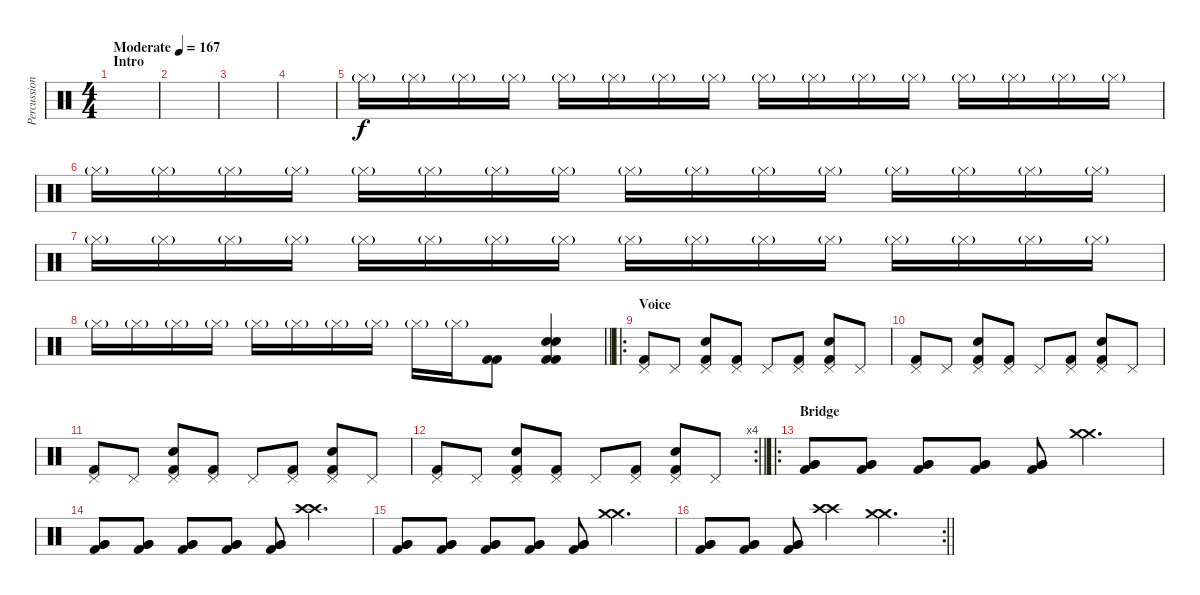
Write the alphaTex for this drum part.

\track ("Percussioni" "Percussion") {instrument percussion}
\staff {score}
\articulation defaults
\ts (4 4)
\section ("" "Intro")
\tempo (167 "Moderate")
\clef neutral
\ks c
|
|
|
|
"Hi-Hat (closed)"{g}.16 "Hi-Hat (closed)"{g}.16 "Hi-Hat (closed)"{g}.16 "Hi-Hat (closed)"{g}.16 "Hi-Hat (closed)"{g}.16 "Hi-Hat (closed)"{g}.16 "Hi-Hat (closed)"{g}.16 "Hi-Hat (closed)"{g}.16 "Hi-Hat (closed)"{g}.16 "Hi-Hat (closed)"{g}.16 "Hi-Hat (closed)"{g}.16 "Hi-Hat (closed)"{g}.16 "Hi-Hat (closed)"{g}.16 "Hi-Hat (closed)"{g}.16 "Hi-Hat (closed)"{g}.16 "Hi-Hat (closed)"{g}.16 |
"Hi-Hat (closed)"{g}.16 "Hi-Hat (closed)"{g}.16 "Hi-Hat (closed)"{g}.16 "Hi-Hat (closed)"{g}.16 "Hi-Hat (closed)"{g}.16 "Hi-Hat (closed)"{g}.16 "Hi-Hat (closed)"{g}.16 "Hi-Hat (closed)"{g}.16 "Hi-Hat (closed)"{g}.16 "Hi-Hat (closed)"{g}.16 "Hi-Hat (closed)"{g}.16 "Hi-Hat (closed)"{g}.16 "Hi-Hat (closed)"{g}.16 "Hi-Hat (closed)"{g}.16 "Hi-Hat (closed)"{g}.16 "Hi-Hat (closed)"{g}.16 |
"Hi-Hat (closed)"{g}.16 "Hi-Hat (closed)"{g}.16 "Hi-Hat (closed)"{g}.16 "Hi-Hat (closed)"{g}.16 "Hi-Hat (closed)"{g}.16 "Hi-Hat (closed)"{g}.16 "Hi-Hat (closed)"{g}.16 "Hi-Hat (closed)"{g}.16 "Hi-Hat (closed)"{g}.16 "Hi-Hat (closed)"{g}.16 "Hi-Hat (closed)"{g}.16 "Hi-Hat (closed)"{g}.16 "Hi-Hat (closed)"{g}.16 "Hi-Hat (closed)"{g}.16 "Hi-Hat (closed)"{g}.16 "Hi-Hat (closed)"{g}.16 |
\barLineRight lightlight "Hi-Hat (closed)"{g}.16 "Hi-Hat (closed)"{g}.16 "Hi-Hat (closed)"{g}.16 "Hi-Hat (closed)"{g}.16 "Hi-Hat (closed)"{g}.16 "Hi-Hat (closed)"{g}.16 "Hi-Hat (closed)"{g}.16 "Hi-Hat (closed)"{g}.16 "Hi-Hat (closed)"{g}.16 "Hi-Hat (closed)"{g}.16
("Kick (hit) 2" "Kick (hit) 2").8 ("Snare (hit) 2" "Snare (hit) 2" "Kick (hit) 2" "Kick (hit) 2").4 |
\ro
\section ("" "Voice")
("Pedal Hi-Hat (hit)" "Kick (hit) 2").8 "Pedal Hi-Hat (hit)".8 ("Pedal Hi-Hat (hit)" "Electric Snare (hit)" "Kick (hit) 2").8 ("Pedal Hi-Hat (hit)" "Kick (hit) 2").8 "Pedal Hi-Hat (hit)".8 ("Pedal Hi-Hat (hit)" "Kick (hit) 2").8 ("Pedal Hi-Hat (hit)" "Electric Snare (hit)" "Kick (hit) 2").8 "Pedal Hi-Hat (hit)".8 |
("Pedal Hi-Hat (hit)" "Kick (hit) 2").8 "Pedal Hi-Hat (hit)".8 ("Pedal Hi-Hat (hit)" "Electric Snare (hit)" "Kick (hit) 2").8 ("Pedal Hi-Hat (hit)" "Kick (hit) 2").8 "Pedal Hi-Hat (hit)".8 ("Pedal Hi-Hat (hit)" "Kick (hit) 2").8 ("Pedal Hi-Hat (hit)" "Electric Snare (hit)" "Kick (hit) 2").8 "Pedal Hi-Hat (hit)".8 |
("Pedal Hi-Hat (hit)" "Kick (hit) 2").8 "Pedal Hi-Hat (hit)".8 ("Pedal Hi-Hat (hit)" "Electric Snare (hit)" "Kick (hit) 2").8 ("Pedal Hi-Hat (hit)" "Kick (hit) 2").8 "Pedal Hi-Hat (hit)".8 ("Pedal Hi-Hat (hit)" "Kick (hit) 2").8 ("Pedal Hi-Hat (hit)" "Electric Snare (hit)" "Kick (hit) 2").8 "Pedal Hi-Hat (hit)".8 |
\rc 4
\barLineRight lightlight
("Pedal Hi-Hat (hit)" "Kick (hit) 2").8 "Pedal Hi-Hat (hit)".8 ("Pedal Hi-Hat (hit)" "Electric Snare (hit)" "Kick (hit) 2").8 ("Pedal Hi-Hat (hit)" "Kick (hit) 2").8 "Pedal Hi-Hat (hit)".8 ("Pedal Hi-Hat (hit)" "Kick (hit) 2").8 ("Pedal Hi-Hat (hit)" "Electric Snare (hit)" "Kick (hit) 2").8 "Pedal Hi-Hat (hit)".8 |
\ro
\section ("" "Bridge")
("Very Low Tom (hit)" "Very Low Tom (hit)" "Kick (hit) 2").8 ("Very Low Tom (hit)" "Very Low Tom (hit)" "Kick (hit) 2").8 ("Very Low Tom (hit)" "Very Low Tom (hit)" "Kick (hit) 2").8 ("Very Low Tom (hit)" "Very Low Tom (hit)" "Kick (hit) 2").8 ("Very Low Tom (hit)" "Very Low Tom (hit)" "Kick (hit) 2").8 ("Crash medium (hit)" "Crash medium (hit)").4{d} |
("Very Low Tom (hit)" "Very Low Tom (hit)" "Kick (hit) 2").8 ("Very Low Tom (hit)" "Very Low Tom (hit)" "Kick (hit) 2").8 ("Very Low Tom (hit)" "Very Low Tom (hit)" "Kick (hit) 2").8 ("Very Low Tom (hit)" "Very Low Tom (hit)" "Kick (hit) 2").8 ("Very Low Tom (hit)" "Very Low Tom (hit)" "Kick (hit) 2").8 ("Crash high (hit)" "Crash high (hit)").4{d} |
("Very Low Tom (hit)" "Very Low Tom (hit)" "Kick (hit) 2").8 ("Very Low Tom (hit)" "Very Low Tom (hit)" "Kick (hit) 2").8 ("Very Low Tom (hit)" "Very Low Tom (hit)" "Kick (hit) 2").8 ("Very Low Tom (hit)" "Very Low Tom (hit)" "Kick (hit) 2").8 ("Very Low Tom (hit)" "Very Low Tom (hit)" "Kick (hit) 2").8 ("Crash medium (hit)" "Crash medium (hit)").4{d} |
\rc 2
\barLineRight lightlight
("Very Low Tom (hit)" "Very Low Tom (hit)" "Kick (hit) 2").8 ("Very Low Tom (hit)" "Very Low Tom (hit)" "Kick (hit) 2").8 ("Very Low Tom (hit)" "Very Low Tom (hit)" "Kick (hit) 2").8 ("Crash high (hit)" "Crash high (hit)").4 ("Crash medium (hit)" "Crash medium (hit)").4{d}
